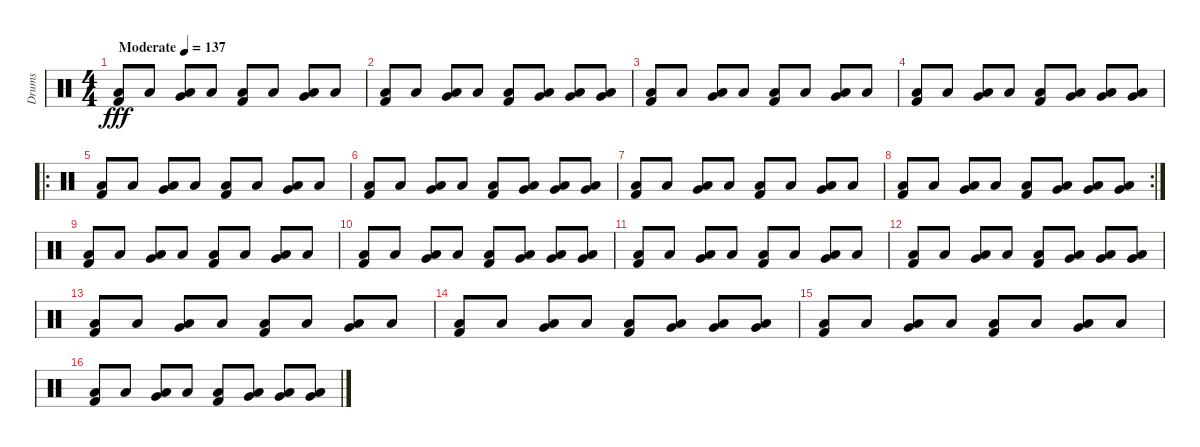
\track ("Drums" "Drums") {instrument percussion}
\staff {score}
\articulation defaults
\ts (4 4)
\tempo (137 "Moderate")
\clef neutral
\ks c
("Low Floor Tom (hit)" "Kick (hit) 2").8{dy fff} "Low Floor Tom (hit)".8 ("Very Low Tom (hit)" "Low Floor Tom (hit)").8 "Low Floor Tom (hit)".8 ("Low Floor Tom (hit)" "Kick (hit) 2").8 "Low Floor Tom (hit)".8 ("Very Low Tom (hit)" "Low Floor Tom (hit)").8 "Low Floor Tom (hit)".8 |
("Low Floor Tom (hit)" "Kick (hit) 2").8 "Low Floor Tom (hit)".8 ("Very Low Tom (hit)" "Low Floor Tom (hit)").8 "Low Floor Tom (hit)".8 ("Low Floor Tom (hit)" "Kick (hit) 2").8 ("Very Low Tom (hit)" "Low Floor Tom (hit)").8 ("Very Low Tom (hit)" "Low Floor Tom (hit)").8 ("Very Low Tom (hit)" "Low Floor Tom (hit)").8 |
("Low Floor Tom (hit)" "Kick (hit) 2").8 "Low Floor Tom (hit)".8 ("Very Low Tom (hit)" "Low Floor Tom (hit)").8 "Low Floor Tom (hit)".8 ("Low Floor Tom (hit)" "Kick (hit) 2").8 "Low Floor Tom (hit)".8 ("Very Low Tom (hit)" "Low Floor Tom (hit)").8 "Low Floor Tom (hit)".8 |
("Low Floor Tom (hit)" "Kick (hit) 2").8 "Low Floor Tom (hit)".8 ("Very Low Tom (hit)" "Low Floor Tom (hit)").8 "Low Floor Tom (hit)".8 ("Low Floor Tom (hit)" "Kick (hit) 2").8 ("Very Low Tom (hit)" "Low Floor Tom (hit)").8 ("Very Low Tom (hit)" "Low Floor Tom (hit)").8 ("Very Low Tom (hit)" "Low Floor Tom (hit)").8 |
\ro
("Low Floor Tom (hit)" "Kick (hit) 2").8 "Low Floor Tom (hit)".8 ("Very Low Tom (hit)" "Low Floor Tom (hit)").8 "Low Floor Tom (hit)".8 ("Low Floor Tom (hit)" "Kick (hit) 2").8 "Low Floor Tom (hit)".8 ("Very Low Tom (hit)" "Low Floor Tom (hit)").8 "Low Floor Tom (hit)".8 |
("Low Floor Tom (hit)" "Kick (hit) 2").8 "Low Floor Tom (hit)".8 ("Very Low Tom (hit)" "Low Floor Tom (hit)").8 "Low Floor Tom (hit)".8 ("Low Floor Tom (hit)" "Kick (hit) 2").8 ("Very Low Tom (hit)" "Low Floor Tom (hit)").8 ("Very Low Tom (hit)" "Low Floor Tom (hit)").8 ("Very Low Tom (hit)" "Low Floor Tom (hit)").8 |
("Low Floor Tom (hit)" "Kick (hit) 2").8 "Low Floor Tom (hit)".8 ("Very Low Tom (hit)" "Low Floor Tom (hit)").8 "Low Floor Tom (hit)".8 ("Low Floor Tom (hit)" "Kick (hit) 2").8 "Low Floor Tom (hit)".8 ("Very Low Tom (hit)" "Low Floor Tom (hit)").8 "Low Floor Tom (hit)".8 |
\rc 2
("Low Floor Tom (hit)" "Kick (hit) 2").8 "Low Floor Tom (hit)".8 ("Very Low Tom (hit)" "Low Floor Tom (hit)").8 "Low Floor Tom (hit)".8 ("Low Floor Tom (hit)" "Kick (hit) 2").8 ("Very Low Tom (hit)" "Low Floor Tom (hit)").8 ("Very Low Tom (hit)" "Low Floor Tom (hit)").8 ("Very Low Tom (hit)" "Low Floor Tom (hit)").8 |
("Low Floor Tom (hit)" "Kick (hit) 2").8 "Low Floor Tom (hit)".8 ("Very Low Tom (hit)" "Low Floor Tom (hit)").8 "Low Floor Tom (hit)".8 ("Low Floor Tom (hit)" "Kick (hit) 2").8 "Low Floor Tom (hit)".8 ("Very Low Tom (hit)" "Low Floor Tom (hit)").8 "Low Floor Tom (hit)".8 |
("Low Floor Tom (hit)" "Kick (hit) 2").8 "Low Floor Tom (hit)".8 ("Very Low Tom (hit)" "Low Floor Tom (hit)").8 "Low Floor Tom (hit)".8 ("Low Floor Tom (hit)" "Kick (hit) 2").8 ("Very Low Tom (hit)" "Low Floor Tom (hit)").8 ("Very Low Tom (hit)" "Low Floor Tom (hit)").8 ("Very Low Tom (hit)" "Low Floor Tom (hit)").8 |
("Low Floor Tom (hit)" "Kick (hit) 2").8 "Low Floor Tom (hit)".8 ("Very Low Tom (hit)" "Low Floor Tom (hit)").8 "Low Floor Tom (hit)".8 ("Low Floor Tom (hit)" "Kick (hit) 2").8 "Low Floor Tom (hit)".8 ("Very Low Tom (hit)" "Low Floor Tom (hit)").8 "Low Floor Tom (hit)".8 |
("Low Floor Tom (hit)" "Kick (hit) 2").8 "Low Floor Tom (hit)".8 ("Very Low Tom (hit)" "Low Floor Tom (hit)").8 "Low Floor Tom (hit)".8 ("Low Floor Tom (hit)" "Kick (hit) 2").8 ("Very Low Tom (hit)" "Low Floor Tom (hit)").8 ("Very Low Tom (hit)" "Low Floor Tom (hit)").8 ("Very Low Tom (hit)" "Low Floor Tom (hit)").8 |
("Low Floor Tom (hit)" "Kick (hit) 2").8 "Low Floor Tom (hit)".8 ("Very Low Tom (hit)" "Low Floor Tom (hit)").8 "Low Floor Tom (hit)".8 ("Low Floor Tom (hit)" "Kick (hit) 2").8 "Low Floor Tom (hit)".8 ("Very Low Tom (hit)" "Low Floor Tom (hit)").8 "Low Floor Tom (hit)".8 |
("Low Floor Tom (hit)" "Kick (hit) 2").8 "Low Floor Tom (hit)".8 ("Very Low Tom (hit)" "Low Floor Tom (hit)").8 "Low Floor Tom (hit)".8 ("Low Floor Tom (hit)" "Kick (hit) 2").8 ("Very Low Tom (hit)" "Low Floor Tom (hit)").8 ("Very Low Tom (hit)" "Low Floor Tom (hit)").8 ("Very Low Tom (hit)" "Low Floor Tom (hit)").8 |
("Low Floor Tom (hit)" "Kick (hit) 2").8 "Low Floor Tom (hit)".8 ("Very Low Tom (hit)" "Low Floor Tom (hit)").8 "Low Floor Tom (hit)".8 ("Low Floor Tom (hit)" "Kick (hit) 2").8 "Low Floor Tom (hit)".8 ("Very Low Tom (hit)" "Low Floor Tom (hit)").8 "Low Floor Tom (hit)".8 |
("Low Floor Tom (hit)" "Kick (hit) 2").8 "Low Floor Tom (hit)".8 ("Very Low Tom (hit)" "Low Floor Tom (hit)").8 "Low Floor Tom (hit)".8 ("Low Floor Tom (hit)" "Kick (hit) 2").8 ("Very Low Tom (hit)" "Low Floor Tom (hit)").8 ("Very Low Tom (hit)" "Low Floor Tom (hit)").8 ("Very Low Tom (hit)" "Low Floor Tom (hit)").8
